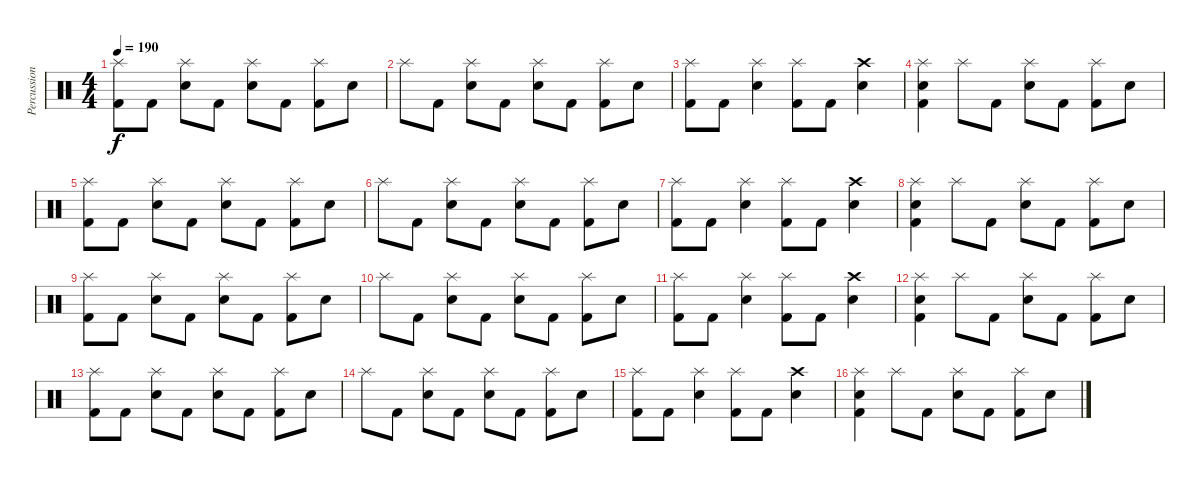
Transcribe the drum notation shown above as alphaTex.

\track ("Percussion" "Percussion") {instrument percussion}
\staff {score}
\articulation defaults
\ts (4 4)
\tempo 190
\clef neutral
\ks c
("Splash (hit)" "Kick (hit) 2").8{dy f} "Kick (hit) 2".8 ("Splash (hit)" "Electric Snare (hit)").8 "Kick (hit) 2".8 ("Splash (hit)" "Electric Snare (hit)").8 "Kick (hit) 2".8 ("Splash (hit)" "Kick (hit) 2").8 "Electric Snare (hit)".8 |
"Splash (hit)".8 "Kick (hit) 2".8 ("Splash (hit)" "Electric Snare (hit)").8 "Kick (hit) 2".8 ("Splash (hit)" "Electric Snare (hit)").8 "Kick (hit) 2".8 ("Splash (hit)" "Kick (hit) 2").8 "Electric Snare (hit)".8 |
("Splash (hit)" "Kick (hit) 2").8 "Kick (hit) 2".8 ("Splash (hit)" "Electric Snare (hit)").4 ("Splash (hit)" "Kick (hit) 2").8 "Kick (hit) 2".8 ("Crash high (hit)" "Electric Snare (hit)").4 |
("Splash (hit)" "Electric Snare (hit)" "Kick (hit) 2").4 "Splash (hit)".8 "Kick (hit) 2".8 ("Splash (hit)" "Electric Snare (hit)").8 "Kick (hit) 2".8 ("Splash (hit)" "Kick (hit) 2").8 "Electric Snare (hit)".8 |
("Splash (hit)" "Kick (hit) 2").8 "Kick (hit) 2".8 ("Splash (hit)" "Electric Snare (hit)").8 "Kick (hit) 2".8 ("Splash (hit)" "Electric Snare (hit)").8 "Kick (hit) 2".8 ("Splash (hit)" "Kick (hit) 2").8 "Electric Snare (hit)".8 |
"Splash (hit)".8 "Kick (hit) 2".8 ("Splash (hit)" "Electric Snare (hit)").8 "Kick (hit) 2".8 ("Splash (hit)" "Electric Snare (hit)").8 "Kick (hit) 2".8 ("Splash (hit)" "Kick (hit) 2").8 "Electric Snare (hit)".8 |
("Splash (hit)" "Kick (hit) 2").8 "Kick (hit) 2".8 ("Splash (hit)" "Electric Snare (hit)").4 ("Splash (hit)" "Kick (hit) 2").8 "Kick (hit) 2".8 ("Crash high (hit)" "Electric Snare (hit)").4 |
("Splash (hit)" "Electric Snare (hit)" "Kick (hit) 2").4 "Splash (hit)".8 "Kick (hit) 2".8 ("Splash (hit)" "Electric Snare (hit)").8 "Kick (hit) 2".8 ("Splash (hit)" "Kick (hit) 2").8 "Electric Snare (hit)".8 |
("Splash (hit)" "Kick (hit) 2").8 "Kick (hit) 2".8 ("Splash (hit)" "Electric Snare (hit)").8 "Kick (hit) 2".8 ("Splash (hit)" "Electric Snare (hit)").8 "Kick (hit) 2".8 ("Splash (hit)" "Kick (hit) 2").8 "Electric Snare (hit)".8 |
"Splash (hit)".8 "Kick (hit) 2".8 ("Splash (hit)" "Electric Snare (hit)").8 "Kick (hit) 2".8 ("Splash (hit)" "Electric Snare (hit)").8 "Kick (hit) 2".8 ("Splash (hit)" "Kick (hit) 2").8 "Electric Snare (hit)".8 |
("Splash (hit)" "Kick (hit) 2").8 "Kick (hit) 2".8 ("Splash (hit)" "Electric Snare (hit)").4 ("Splash (hit)" "Kick (hit) 2").8 "Kick (hit) 2".8 ("Crash high (hit)" "Electric Snare (hit)").4 |
("Splash (hit)" "Electric Snare (hit)" "Kick (hit) 2").4 "Splash (hit)".8 "Kick (hit) 2".8 ("Splash (hit)" "Electric Snare (hit)").8 "Kick (hit) 2".8 ("Splash (hit)" "Kick (hit) 2").8 "Electric Snare (hit)".8 |
("Splash (hit)" "Kick (hit) 2").8 "Kick (hit) 2".8 ("Splash (hit)" "Electric Snare (hit)").8 "Kick (hit) 2".8 ("Splash (hit)" "Electric Snare (hit)").8 "Kick (hit) 2".8 ("Splash (hit)" "Kick (hit) 2").8 "Electric Snare (hit)".8 |
"Splash (hit)".8 "Kick (hit) 2".8 ("Splash (hit)" "Electric Snare (hit)").8 "Kick (hit) 2".8 ("Splash (hit)" "Electric Snare (hit)").8 "Kick (hit) 2".8 ("Splash (hit)" "Kick (hit) 2").8 "Electric Snare (hit)".8 |
("Splash (hit)" "Kick (hit) 2").8 "Kick (hit) 2".8 ("Splash (hit)" "Electric Snare (hit)").4 ("Splash (hit)" "Kick (hit) 2").8 "Kick (hit) 2".8 ("Crash high (hit)" "Electric Snare (hit)").4 |
("Splash (hit)" "Electric Snare (hit)" "Kick (hit) 2").4 "Splash (hit)".8 "Kick (hit) 2".8 ("Splash (hit)" "Electric Snare (hit)").8 "Kick (hit) 2".8 ("Splash (hit)" "Kick (hit) 2").8 "Electric Snare (hit)".8
